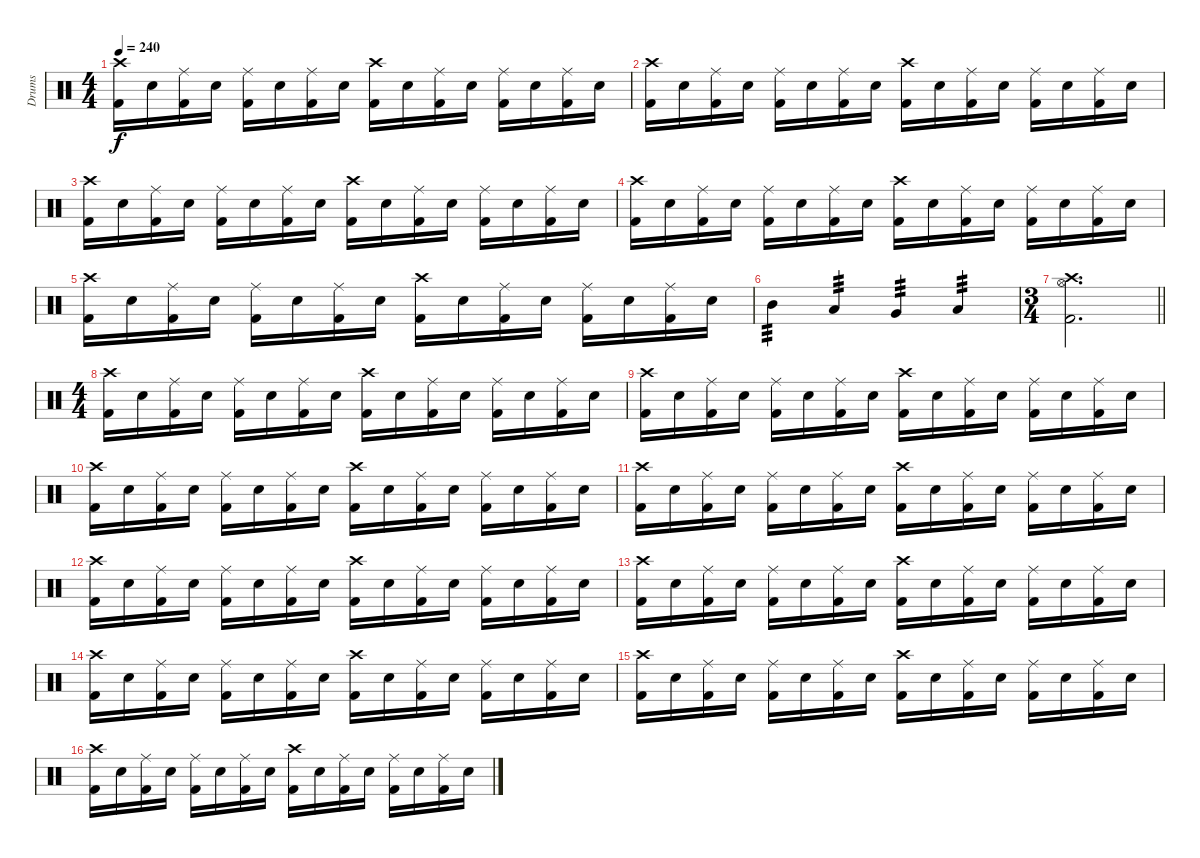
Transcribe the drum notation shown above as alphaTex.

\track ("Drums" "Drums") {instrument percussion}
\staff {score}
\articulation defaults
\ts (4 4)
\tempo 240
\clef neutral
\ks c
("Crash high (hit)" "Kick (hit) 2").16{dy f} "Electric Snare (hit)".16 ("Ride (middle)" "Kick (hit) 2").16 "Electric Snare (hit)".16 ("Ride (middle)" "Kick (hit) 2").16 "Electric Snare (hit)".16 ("Ride (middle)" "Kick (hit) 2").16 "Electric Snare (hit)".16 ("Crash high (hit)" "Kick (hit) 2").16 "Electric Snare (hit)".16 ("Ride (middle)" "Kick (hit) 2").16 "Electric Snare (hit)".16 ("Ride (middle)" "Kick (hit) 2").16 "Electric Snare (hit)".16 ("Ride (middle)" "Kick (hit) 2").16 "Electric Snare (hit)".16 |
("Crash high (hit)" "Kick (hit) 2").16 "Electric Snare (hit)".16 ("Ride (middle)" "Kick (hit) 2").16 "Electric Snare (hit)".16 ("Ride (middle)" "Kick (hit) 2").16 "Electric Snare (hit)".16 ("Ride (middle)" "Kick (hit) 2").16 "Electric Snare (hit)".16 ("Crash high (hit)" "Kick (hit) 2").16 "Electric Snare (hit)".16 ("Ride (middle)" "Kick (hit) 2").16 "Electric Snare (hit)".16 ("Ride (middle)" "Kick (hit) 2").16 "Electric Snare (hit)".16 ("Ride (middle)" "Kick (hit) 2").16 "Electric Snare (hit)".16 |
("Crash high (hit)" "Kick (hit) 2").16 "Electric Snare (hit)".16 ("Ride (middle)" "Kick (hit) 2").16 "Electric Snare (hit)".16 ("Ride (middle)" "Kick (hit) 2").16 "Electric Snare (hit)".16 ("Ride (middle)" "Kick (hit) 2").16 "Electric Snare (hit)".16 ("Crash high (hit)" "Kick (hit) 2").16 "Electric Snare (hit)".16 ("Ride (middle)" "Kick (hit) 2").16 "Electric Snare (hit)".16 ("Ride (middle)" "Kick (hit) 2").16 "Electric Snare (hit)".16 ("Ride (middle)" "Kick (hit) 2").16 "Electric Snare (hit)".16 |
("Crash high (hit)" "Kick (hit) 2").16 "Electric Snare (hit)".16 ("Ride (middle)" "Kick (hit) 2").16 "Electric Snare (hit)".16 ("Ride (middle)" "Kick (hit) 2").16 "Electric Snare (hit)".16 ("Ride (middle)" "Kick (hit) 2").16 "Electric Snare (hit)".16 ("Crash high (hit)" "Kick (hit) 2").16 "Electric Snare (hit)".16 ("Ride (middle)" "Kick (hit) 2").16 "Electric Snare (hit)".16 ("Ride (middle)" "Kick (hit) 2").16 "Electric Snare (hit)".16 ("Ride (middle)" "Kick (hit) 2").16 "Electric Snare (hit)".16 |
("Crash high (hit)" "Kick (hit) 2").16 "Electric Snare (hit)".16 ("Ride (middle)" "Kick (hit) 2").16 "Electric Snare (hit)".16 ("Ride (middle)" "Kick (hit) 2").16 "Electric Snare (hit)".16 ("Ride (middle)" "Kick (hit) 2").16 "Electric Snare (hit)".16 ("Crash high (hit)" "Kick (hit) 2").16 "Electric Snare (hit)".16 ("Ride (middle)" "Kick (hit) 2").16 "Electric Snare (hit)".16 ("Ride (middle)" "Kick (hit) 2").16 "Electric Snare (hit)".16 ("Ride (middle)" "Kick (hit) 2").16 "Electric Snare (hit)".16 |
"Mid Tom (hit)".4{tp 3} "Low Tom (hit)".4{tp 3} "Very Low Tom (hit)".4{tp 3} "Low Floor Tom (hit)".4{tp 3} |
\ts (3 4)
\barLineRight lightlight
("Crash high (hit)" "Hi-Hat (open)" "Kick (hit) 2").2{d} |
\ts (4 4)
("Crash high (hit)" "Kick (hit) 2").16 "Electric Snare (hit)".16 ("Ride (middle)" "Kick (hit) 2").16 "Electric Snare (hit)".16 ("Ride (middle)" "Kick (hit) 2").16 "Electric Snare (hit)".16 ("Ride (middle)" "Kick (hit) 2").16 "Electric Snare (hit)".16 ("Crash high (hit)" "Kick (hit) 2").16 "Electric Snare (hit)".16 ("Ride (middle)" "Kick (hit) 2").16 "Electric Snare (hit)".16 ("Ride (middle)" "Kick (hit) 2").16 "Electric Snare (hit)".16 ("Ride (middle)" "Kick (hit) 2").16 "Electric Snare (hit)".16 |
("Crash high (hit)" "Kick (hit) 2").16 "Electric Snare (hit)".16 ("Ride (middle)" "Kick (hit) 2").16 "Electric Snare (hit)".16 ("Ride (middle)" "Kick (hit) 2").16 "Electric Snare (hit)".16 ("Ride (middle)" "Kick (hit) 2").16 "Electric Snare (hit)".16 ("Crash high (hit)" "Kick (hit) 2").16 "Electric Snare (hit)".16 ("Ride (middle)" "Kick (hit) 2").16 "Electric Snare (hit)".16 ("Ride (middle)" "Kick (hit) 2").16 "Electric Snare (hit)".16 ("Ride (middle)" "Kick (hit) 2").16 "Electric Snare (hit)".16 |
("Crash high (hit)" "Kick (hit) 2").16 "Electric Snare (hit)".16 ("Ride (middle)" "Kick (hit) 2").16 "Electric Snare (hit)".16 ("Ride (middle)" "Kick (hit) 2").16 "Electric Snare (hit)".16 ("Ride (middle)" "Kick (hit) 2").16 "Electric Snare (hit)".16 ("Crash high (hit)" "Kick (hit) 2").16 "Electric Snare (hit)".16 ("Ride (middle)" "Kick (hit) 2").16 "Electric Snare (hit)".16 ("Ride (middle)" "Kick (hit) 2").16 "Electric Snare (hit)".16 ("Ride (middle)" "Kick (hit) 2").16 "Electric Snare (hit)".16 |
("Crash high (hit)" "Kick (hit) 2").16 "Electric Snare (hit)".16 ("Ride (middle)" "Kick (hit) 2").16 "Electric Snare (hit)".16 ("Ride (middle)" "Kick (hit) 2").16 "Electric Snare (hit)".16 ("Ride (middle)" "Kick (hit) 2").16 "Electric Snare (hit)".16 ("Crash high (hit)" "Kick (hit) 2").16 "Electric Snare (hit)".16 ("Ride (middle)" "Kick (hit) 2").16 "Electric Snare (hit)".16 ("Ride (middle)" "Kick (hit) 2").16 "Electric Snare (hit)".16 ("Ride (middle)" "Kick (hit) 2").16 "Electric Snare (hit)".16 |
("Crash high (hit)" "Kick (hit) 2").16 "Electric Snare (hit)".16 ("Ride (middle)" "Kick (hit) 2").16 "Electric Snare (hit)".16 ("Ride (middle)" "Kick (hit) 2").16 "Electric Snare (hit)".16 ("Ride (middle)" "Kick (hit) 2").16 "Electric Snare (hit)".16 ("Crash high (hit)" "Kick (hit) 2").16 "Electric Snare (hit)".16 ("Ride (middle)" "Kick (hit) 2").16 "Electric Snare (hit)".16 ("Ride (middle)" "Kick (hit) 2").16 "Electric Snare (hit)".16 ("Ride (middle)" "Kick (hit) 2").16 "Electric Snare (hit)".16 |
("Crash high (hit)" "Kick (hit) 2").16 "Electric Snare (hit)".16 ("Ride (middle)" "Kick (hit) 2").16 "Electric Snare (hit)".16 ("Ride (middle)" "Kick (hit) 2").16 "Electric Snare (hit)".16 ("Ride (middle)" "Kick (hit) 2").16 "Electric Snare (hit)".16 ("Crash high (hit)" "Kick (hit) 2").16 "Electric Snare (hit)".16 ("Ride (middle)" "Kick (hit) 2").16 "Electric Snare (hit)".16 ("Ride (middle)" "Kick (hit) 2").16 "Electric Snare (hit)".16 ("Ride (middle)" "Kick (hit) 2").16 "Electric Snare (hit)".16 |
("Crash high (hit)" "Kick (hit) 2").16 "Electric Snare (hit)".16 ("Ride (middle)" "Kick (hit) 2").16 "Electric Snare (hit)".16 ("Ride (middle)" "Kick (hit) 2").16 "Electric Snare (hit)".16 ("Ride (middle)" "Kick (hit) 2").16 "Electric Snare (hit)".16 ("Crash high (hit)" "Kick (hit) 2").16 "Electric Snare (hit)".16 ("Ride (middle)" "Kick (hit) 2").16 "Electric Snare (hit)".16 ("Ride (middle)" "Kick (hit) 2").16 "Electric Snare (hit)".16 ("Ride (middle)" "Kick (hit) 2").16 "Electric Snare (hit)".16 |
("Crash high (hit)" "Kick (hit) 2").16 "Electric Snare (hit)".16 ("Ride (middle)" "Kick (hit) 2").16 "Electric Snare (hit)".16 ("Ride (middle)" "Kick (hit) 2").16 "Electric Snare (hit)".16 ("Ride (middle)" "Kick (hit) 2").16 "Electric Snare (hit)".16 ("Crash high (hit)" "Kick (hit) 2").16 "Electric Snare (hit)".16 ("Ride (middle)" "Kick (hit) 2").16 "Electric Snare (hit)".16 ("Ride (middle)" "Kick (hit) 2").16 "Electric Snare (hit)".16 ("Ride (middle)" "Kick (hit) 2").16 "Electric Snare (hit)".16 |
("Crash high (hit)" "Kick (hit) 2").16 "Electric Snare (hit)".16 ("Ride (middle)" "Kick (hit) 2").16 "Electric Snare (hit)".16 ("Ride (middle)" "Kick (hit) 2").16 "Electric Snare (hit)".16 ("Ride (middle)" "Kick (hit) 2").16 "Electric Snare (hit)".16 ("Crash high (hit)" "Kick (hit) 2").16 "Electric Snare (hit)".16 ("Ride (middle)" "Kick (hit) 2").16 "Electric Snare (hit)".16 ("Ride (middle)" "Kick (hit) 2").16 "Electric Snare (hit)".16 ("Ride (middle)" "Kick (hit) 2").16 "Electric Snare (hit)".16
